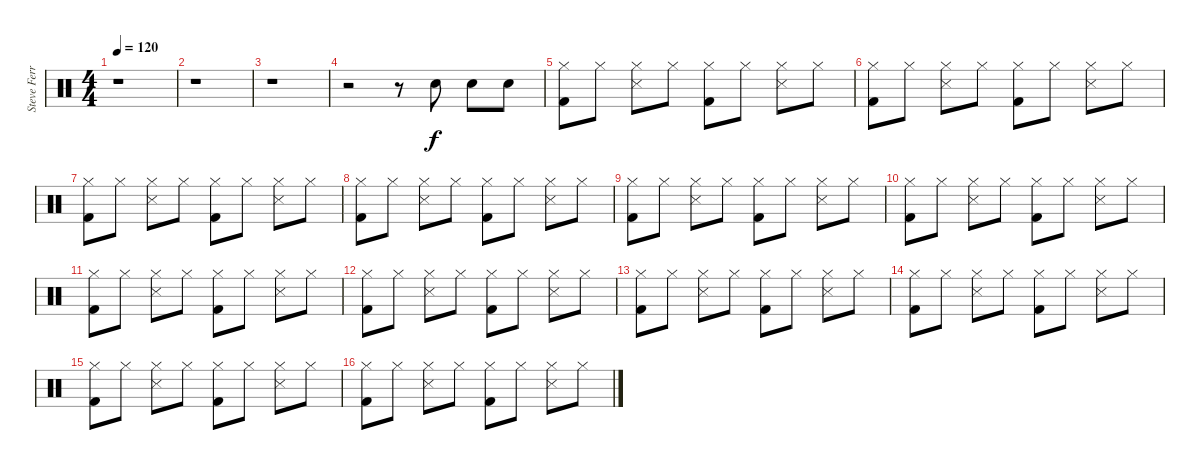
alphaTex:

\track ("Steve Ferrone" "Steve Ferr") {instrument percussion}
\staff {score}
\articulation defaults
\ts (4 4)
\tempo 120
\clef neutral
\ks c
r.1{dy f} |
r.1 |
r.1 |
r.2 r.8 "Electric Snare (hit)".8 "Electric Snare (hit)".8 "Electric Snare (hit)".8 |
("Kick (hit) 2" "Hi-Hat (closed)").8 "Hi-Hat (closed)".8 ("Snare (side stick) 3" "Hi-Hat (closed)").8 "Hi-Hat (closed)".8 ("Kick (hit) 2" "Hi-Hat (closed)").8 "Hi-Hat (closed)".8 ("Snare (side stick) 3" "Hi-Hat (closed)").8 "Hi-Hat (closed)".8 |
("Kick (hit) 2" "Hi-Hat (closed)").8 "Hi-Hat (closed)".8 ("Snare (side stick) 3" "Hi-Hat (closed)").8 "Hi-Hat (closed)".8 ("Kick (hit) 2" "Hi-Hat (closed)").8 "Hi-Hat (closed)".8 ("Snare (side stick) 3" "Hi-Hat (closed)").8 "Hi-Hat (closed)".8 |
("Kick (hit) 2" "Hi-Hat (closed)").8 "Hi-Hat (closed)".8 ("Snare (side stick) 3" "Hi-Hat (closed)").8 "Hi-Hat (closed)".8 ("Kick (hit) 2" "Hi-Hat (closed)").8 "Hi-Hat (closed)".8 ("Snare (side stick) 3" "Hi-Hat (closed)").8 "Hi-Hat (closed)".8 |
("Kick (hit) 2" "Hi-Hat (closed)").8 "Hi-Hat (closed)".8 ("Snare (side stick) 3" "Hi-Hat (closed)").8 "Hi-Hat (closed)".8 ("Kick (hit) 2" "Hi-Hat (closed)").8 "Hi-Hat (closed)".8 ("Snare (side stick) 3" "Hi-Hat (closed)").8 "Hi-Hat (closed)".8 |
("Kick (hit) 2" "Hi-Hat (closed)").8 "Hi-Hat (closed)".8 ("Snare (side stick) 3" "Hi-Hat (closed)").8 "Hi-Hat (closed)".8 ("Kick (hit) 2" "Hi-Hat (closed)").8 "Hi-Hat (closed)".8 ("Snare (side stick) 3" "Hi-Hat (closed)").8 "Hi-Hat (closed)".8 |
("Kick (hit) 2" "Hi-Hat (closed)").8 "Hi-Hat (closed)".8 ("Snare (side stick) 3" "Hi-Hat (closed)").8 "Hi-Hat (closed)".8 ("Kick (hit) 2" "Hi-Hat (closed)").8 "Hi-Hat (closed)".8 ("Snare (side stick) 3" "Hi-Hat (closed)").8 "Hi-Hat (closed)".8 |
("Kick (hit) 2" "Hi-Hat (closed)").8 "Hi-Hat (closed)".8 ("Snare (side stick) 3" "Hi-Hat (closed)").8 "Hi-Hat (closed)".8 ("Kick (hit) 2" "Hi-Hat (closed)").8 "Hi-Hat (closed)".8 ("Snare (side stick) 3" "Hi-Hat (closed)").8 "Hi-Hat (closed)".8 |
("Kick (hit) 2" "Hi-Hat (closed)").8 "Hi-Hat (closed)".8 ("Snare (side stick) 3" "Hi-Hat (closed)").8 "Hi-Hat (closed)".8 ("Kick (hit) 2" "Hi-Hat (closed)").8 "Hi-Hat (closed)".8 ("Snare (side stick) 3" "Hi-Hat (closed)").8 "Hi-Hat (closed)".8 |
("Kick (hit) 2" "Hi-Hat (closed)").8 "Hi-Hat (closed)".8 ("Snare (side stick) 3" "Hi-Hat (closed)").8 "Hi-Hat (closed)".8 ("Kick (hit) 2" "Hi-Hat (closed)").8 "Hi-Hat (closed)".8 ("Snare (side stick) 3" "Hi-Hat (closed)").8 "Hi-Hat (closed)".8 |
("Kick (hit) 2" "Hi-Hat (closed)").8 "Hi-Hat (closed)".8 ("Snare (side stick) 3" "Hi-Hat (closed)").8 "Hi-Hat (closed)".8 ("Kick (hit) 2" "Hi-Hat (closed)").8 "Hi-Hat (closed)".8 ("Snare (side stick) 3" "Hi-Hat (closed)").8 "Hi-Hat (closed)".8 |
("Kick (hit) 2" "Hi-Hat (closed)").8 "Hi-Hat (closed)".8 ("Snare (side stick) 3" "Hi-Hat (closed)").8 "Hi-Hat (closed)".8 ("Kick (hit) 2" "Hi-Hat (closed)").8 "Hi-Hat (closed)".8 ("Snare (side stick) 3" "Hi-Hat (closed)").8 "Hi-Hat (closed)".8 |
("Kick (hit) 2" "Hi-Hat (closed)").8 "Hi-Hat (closed)".8 ("Snare (side stick) 3" "Hi-Hat (closed)").8 "Hi-Hat (closed)".8 ("Kick (hit) 2" "Hi-Hat (closed)").8 "Hi-Hat (closed)".8 ("Snare (side stick) 3" "Hi-Hat (closed)").8 "Hi-Hat (closed)".8
